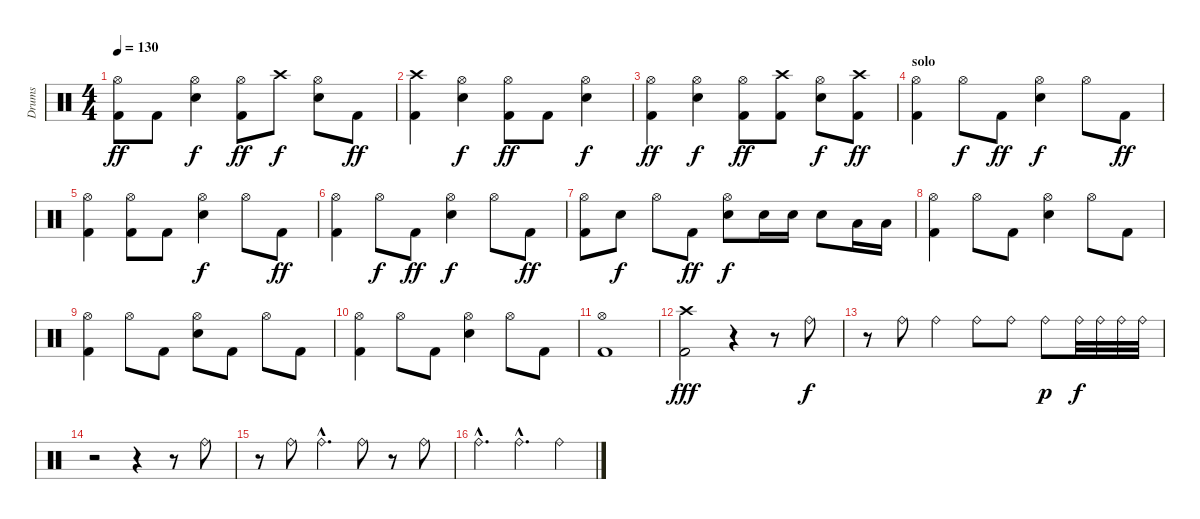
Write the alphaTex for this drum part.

\track ("Drums" "Drums") {instrument percussion}
\staff {score}
\articulation defaults
\ts (4 4)
\tempo 130
\clef neutral
\ks c
("Hi-Hat (open)" "Kick (hit) 2").8{dy ff} "Kick (hit) 2".8 ("Hi-Hat (open)" "Snare (hit) 2").4{dy f} ("Hi-Hat (open)" "Kick (hit) 2").8{dy ff} "Crash high (hit)".8{dy f} ("Hi-Hat (open)" "Snare (hit) 2").8 "Kick (hit) 2".8{dy ff} |
("Crash high (hit)" "Kick (hit) 2").4 ("Hi-Hat (open)" "Snare (hit) 2").4{dy f} ("Hi-Hat (open)" "Kick (hit) 2").8{dy ff} "Kick (hit) 2".8 ("Hi-Hat (open)" "Snare (hit) 2").4{dy f} |
("Hi-Hat (open)" "Kick (hit) 2").4{dy ff} ("Hi-Hat (open)" "Snare (hit) 2").4{dy f} ("Hi-Hat (open)" "Kick (hit) 2").8{dy ff} ("Crash high (hit)" "Kick (hit) 2").8 ("Hi-Hat (open)" "Snare (hit) 2").8{dy f} ("Crash high (hit)" "Kick (hit) 2").8{dy ff} |
\section ("" "solo")
("Hi-Hat (open)" "Kick (hit) 2").4 "Hi-Hat (open)".8{dy f} "Kick (hit) 2".8{dy ff} ("Hi-Hat (open)" "Snare (hit) 2").4{dy f} "Hi-Hat (open)".8 "Kick (hit) 2".8{dy ff} |
("Hi-Hat (open)" "Kick (hit) 2").4 ("Hi-Hat (open)" "Kick (hit) 2").8 "Kick (hit) 2".8 ("Hi-Hat (open)" "Snare (hit) 2").4{dy f} "Hi-Hat (open)".8 "Kick (hit) 2".8{dy ff} |
("Hi-Hat (open)" "Kick (hit) 2").4 "Hi-Hat (open)".8{dy f} "Kick (hit) 2".8{dy ff} ("Hi-Hat (open)" "Snare (hit) 2").4{dy f} "Hi-Hat (open)".8 "Kick (hit) 2".8{dy ff} |
("Hi-Hat (open)" "Kick (hit) 2").8 "Snare (hit) 2".8{dy f} "Hi-Hat (open)".8 "Kick (hit) 2".8{dy ff} ("Hi-Hat (open)" "Snare (hit) 2").8{dy f} "Snare (hit) 2".16 "Snare (hit) 2".16 "Snare (hit) 2".8 "Low Tom (hit)".16 "Low Tom (hit)".16 |
("Hi-Hat (open)" "Kick (hit) 2").4 "Hi-Hat (open)".8 "Kick (hit) 2".8 ("Hi-Hat (open)" "Snare (hit) 2").4 "Hi-Hat (open)".8 "Kick (hit) 2".8 |
("Hi-Hat (open)" "Kick (hit) 2").4 "Hi-Hat (open)".8 "Kick (hit) 2".8 ("Hi-Hat (open)" "Snare (hit) 2").8 "Kick (hit) 2".8 "Hi-Hat (open)".8 "Kick (hit) 2".8 |
("Hi-Hat (open)" "Kick (hit) 2").4 "Hi-Hat (open)".8 "Kick (hit) 2".8 ("Hi-Hat (open)" "Snare (hit) 2").4 "Hi-Hat (open)".8 "Kick (hit) 2".8 |
("Hi-Hat (open)" "Kick (hit) 2").1 |
("Crash high (hit)" "Kick (hit) 2").2{dy fff} r.4 r.8 "Ride (bell)".8{dy f} |
r.8 "Ride (bell)".8 "Ride (bell)".4 "Ride (bell)".8 "Ride (bell)".8 "Ride (bell)".8{dy p} "Ride (bell)".32{dy f} "Ride (bell)".32 "Ride (bell)".32 "Ride (bell)".32 |
r.2 r.4 r.8 "Ride (bell)".8 |
r.8 "Ride (bell)".8 "Ride (bell)"{hac}.4{d} "Ride (bell)".8 r.8 "Ride (bell)".8 |
"Ride (bell)"{hac}.4{d} "Ride (bell)"{hac}.4{d} "Ride (bell)".4
